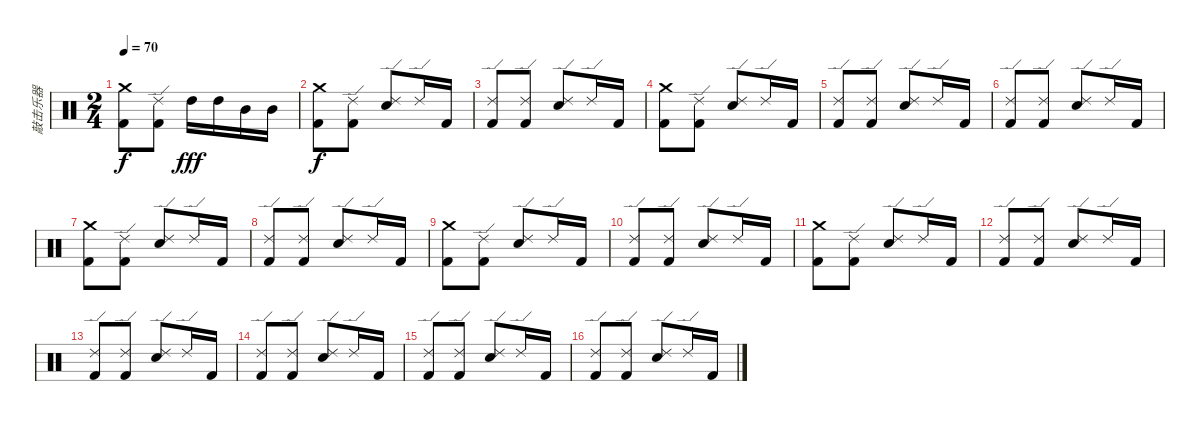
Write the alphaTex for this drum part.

\track ("敲击乐器" "敲击乐器") {instrument percussion}
\staff {score}
\articulation defaults
\ts (2 4)
\tempo 70
\clef neutral
\ks c
("Crash medium (hit)" "Kick (hit) 2").8{dy f} ("Ride (edge) 2" "Kick (hit) 2").8 "High Tom (hit)".16{dy fff} "High Tom (hit)".16 "Mid Tom (hit)".16 "Mid Tom (hit)".16 |
("Crash medium (hit)" "Kick (hit) 2").8{dy f} ("Ride (edge) 2" "Kick (hit) 2").8 ("Ride (edge) 2" "Snare (hit) 2").8 "Ride (edge) 2".16 "Kick (hit) 2".16 |
("Ride (edge) 2" "Kick (hit) 2").8 ("Ride (edge) 2" "Kick (hit) 2").8 ("Ride (edge) 2" "Snare (hit) 2").8 "Ride (edge) 2".16 "Kick (hit) 2".16 |
("Crash medium (hit)" "Kick (hit) 2").8 ("Ride (edge) 2" "Kick (hit) 2").8 ("Ride (edge) 2" "Snare (hit) 2").8 "Ride (edge) 2".16 "Kick (hit) 2".16 |
("Ride (edge) 2" "Kick (hit) 2").8 ("Ride (edge) 2" "Kick (hit) 2").8 ("Ride (edge) 2" "Snare (hit) 2").8 "Ride (edge) 2".16 "Kick (hit) 2".16 |
("Ride (edge) 2" "Kick (hit) 2").8 ("Ride (edge) 2" "Kick (hit) 2").8 ("Ride (edge) 2" "Snare (hit) 2").8 "Ride (edge) 2".16 "Kick (hit) 2".16 |
("Crash medium (hit)" "Kick (hit) 2").8 ("Ride (edge) 2" "Kick (hit) 2").8 ("Ride (edge) 2" "Snare (hit) 2").8 "Ride (edge) 2".16 "Kick (hit) 2".16 |
("Ride (edge) 2" "Kick (hit) 2").8 ("Ride (edge) 2" "Kick (hit) 2").8 ("Ride (edge) 2" "Snare (hit) 2").8 "Ride (edge) 2".16 "Kick (hit) 2".16 |
("Crash medium (hit)" "Kick (hit) 2").8 ("Ride (edge) 2" "Kick (hit) 2").8 ("Ride (edge) 2" "Snare (hit) 2").8 "Ride (edge) 2".16 "Kick (hit) 2".16 |
("Ride (edge) 2" "Kick (hit) 2").8 ("Ride (edge) 2" "Kick (hit) 2").8 ("Ride (edge) 2" "Snare (hit) 2").8 "Ride (edge) 2".16 "Kick (hit) 2".16 |
("Crash medium (hit)" "Kick (hit) 2").8 ("Ride (edge) 2" "Kick (hit) 2").8 ("Ride (edge) 2" "Snare (hit) 2").8 "Ride (edge) 2".16 "Kick (hit) 2".16 |
("Ride (edge) 2" "Kick (hit) 2").8 ("Ride (edge) 2" "Kick (hit) 2").8 ("Ride (edge) 2" "Snare (hit) 2").8 "Ride (edge) 2".16 "Kick (hit) 2".16 |
("Ride (edge) 2" "Kick (hit) 2").8 ("Ride (edge) 2" "Kick (hit) 2").8 ("Ride (edge) 2" "Snare (hit) 2").8 "Ride (edge) 2".16 "Kick (hit) 2".16 |
("Ride (edge) 2" "Kick (hit) 2").8 ("Ride (edge) 2" "Kick (hit) 2").8 ("Ride (edge) 2" "Snare (hit) 2").8 "Ride (edge) 2".16 "Kick (hit) 2".16 |
("Ride (edge) 2" "Kick (hit) 2").8 ("Ride (edge) 2" "Kick (hit) 2").8 ("Ride (edge) 2" "Snare (hit) 2").8 "Ride (edge) 2".16 "Kick (hit) 2".16 |
("Ride (edge) 2" "Kick (hit) 2").8 ("Ride (edge) 2" "Kick (hit) 2").8 ("Ride (edge) 2" "Snare (hit) 2").8 "Ride (edge) 2".16 "Kick (hit) 2".16
